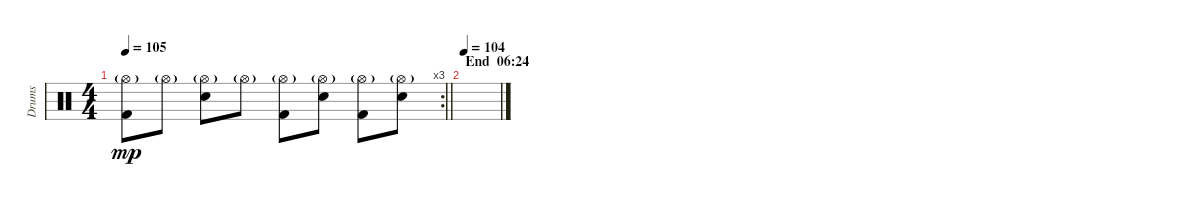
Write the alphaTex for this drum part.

\track ("Drums" "Drums") {instrument percussion}
\staff {score}
\articulation defaults
\rc 3
\ts (4 4)
\tempo 105
\clef neutral
\barLineRight lightlight
\ks c
("Hi-Hat (open)"{g} "Kick (hit) 2").8{dy mp} "Hi-Hat (open)"{g}.8 ("Hi-Hat (open)"{g} "Electric Snare (hit)").8 "Hi-Hat (open)"{g}.8 ("Hi-Hat (open)"{g} "Kick (hit) 2").8 ("Hi-Hat (open)"{g} "Electric Snare (hit)").8 ("Hi-Hat (open)"{g} "Kick (hit) 2").8 ("Hi-Hat (open)"{g} "Electric Snare (hit)").8 |
\section ("" "End  06:24")
\tempo 104
